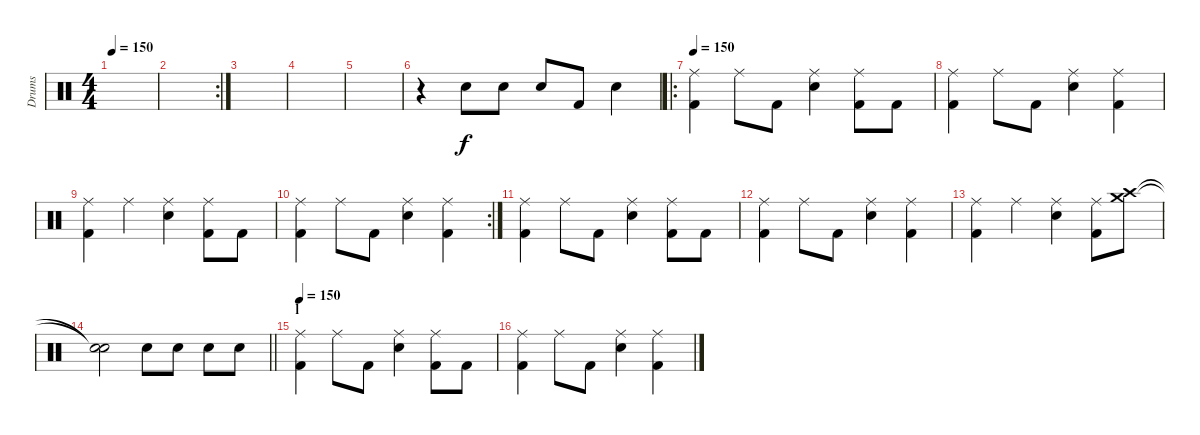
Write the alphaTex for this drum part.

\track ("Drums" "Drums") {instrument percussion}
\staff {score}
\articulation defaults
\ts (4 4)
\tempo 150
\clef neutral
\ks c
|
\rc 2
|
|
|
|
r.4 "Snare (hit) 2".8 "Snare (hit) 2".8 "Snare (hit) 2".8 "Kick (hit) 2".8 "Snare (hit) 2".4 |
\ro
\tempo 150
("Kick (hit) 2" "Ride (middle)").4 "Ride (middle)".8 "Kick (hit) 2".8 ("Electric Snare (hit)" "Ride (middle)").4 ("Kick (hit) 2" "Ride (middle)").8 "Kick (hit) 2".8 |
("Kick (hit) 2" "Ride (middle)").4 "Ride (middle)".8 "Kick (hit) 2".8 ("Electric Snare (hit)" "Ride (middle)").4 ("Kick (hit) 2" "Ride (middle)").4 |
("Kick (hit) 2" "Ride (middle)").4 "Ride (middle)".4 ("Electric Snare (hit)" "Ride (middle)").4 ("Kick (hit) 2" "Ride (middle)").8 "Kick (hit) 2".8 |
\rc 2
("Kick (hit) 2" "Ride (middle)").4 "Ride (middle)".8 "Kick (hit) 2".8 ("Electric Snare (hit)" "Ride (middle)").4 ("Kick (hit) 2" "Ride (middle)").4 |
("Kick (hit) 2" "Ride (middle)").4 "Ride (middle)".8 "Kick (hit) 2".8 ("Electric Snare (hit)" "Ride (middle)").4 ("Kick (hit) 2" "Ride (middle)").8 "Kick (hit) 2".8 |
("Kick (hit) 2" "Ride (middle)").4 "Ride (middle)".8 "Kick (hit) 2".8 ("Electric Snare (hit)" "Ride (middle)").4 ("Kick (hit) 2" "Ride (middle)").4 |
("Kick (hit) 2" "Ride (middle)").4 "Ride (middle)".4 ("Electric Snare (hit)" "Ride (middle)").4 ("Kick (hit) 2" "Ride (middle)").8 ("Crash high (hit)" "Crash medium (hit)").8 |
\barLineRight lightlight
("Snare (hit)"{t} "Snare (hit)"{t}).2 "Snare (hit) 2".8 "Snare (hit) 2".8 "Snare (hit) 2".8 "Snare (hit) 2".8 |
\section ("" "l")
\tempo 150
("Kick (hit) 2" "Ride (middle)").4 "Ride (middle)".8 "Kick (hit) 2".8 ("Electric Snare (hit)" "Ride (middle)").4 ("Kick (hit) 2" "Ride (middle)").8 "Kick (hit) 2".8 |
("Kick (hit) 2" "Ride (middle)").4 "Ride (middle)".8 "Kick (hit) 2".8 ("Electric Snare (hit)" "Ride (middle)").4 ("Kick (hit) 2" "Ride (middle)").4
